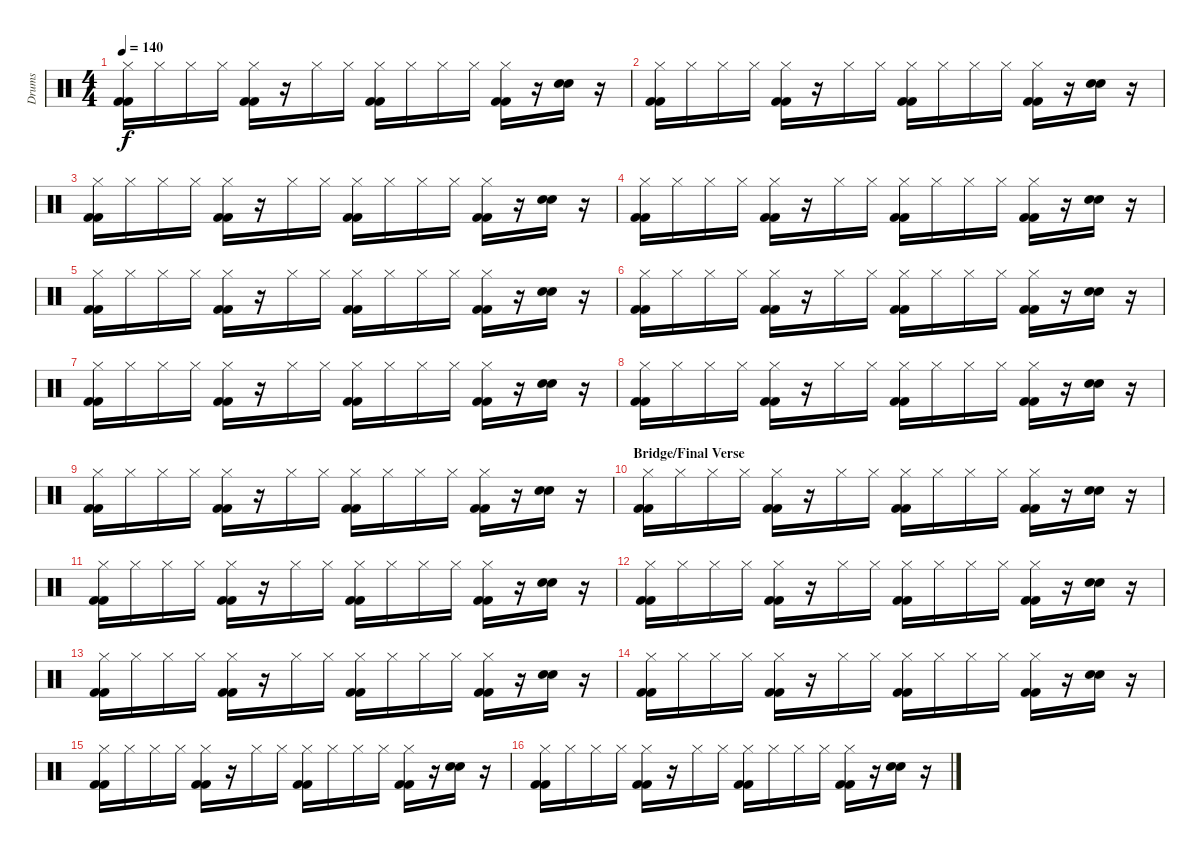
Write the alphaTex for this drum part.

\track ("Drums" "Drums") {instrument percussion}
\staff {score}
\articulation defaults
\ts (4 4)
\tempo 140
\clef neutral
\ks c
("Hi-Hat (closed)" "Kick (hit) 2" "Kick (hit) 2").16{dy f} "Hi-Hat (closed)".16 "Hi-Hat (closed)".16 "Hi-Hat (closed)".16 ("Hi-Hat (closed)" "Kick (hit) 2" "Kick (hit) 2").16 r.16 "Hi-Hat (closed)".16 "Hi-Hat (closed)".16 ("Hi-Hat (closed)" "Kick (hit) 2" "Kick (hit) 2").16 "Hi-Hat (closed)".16 "Hi-Hat (closed)".16 "Hi-Hat (closed)".16 ("Hi-Hat (closed)" "Kick (hit) 2" "Kick (hit) 2").16 r.16 ("Snare (hit) 2" "Snare (hit) 2").16 r.16 |
("Hi-Hat (closed)" "Kick (hit) 2" "Kick (hit) 2").16 "Hi-Hat (closed)".16 "Hi-Hat (closed)".16 "Hi-Hat (closed)".16 ("Hi-Hat (closed)" "Kick (hit) 2" "Kick (hit) 2").16 r.16 "Hi-Hat (closed)".16 "Hi-Hat (closed)".16 ("Hi-Hat (closed)" "Kick (hit) 2" "Kick (hit) 2").16 "Hi-Hat (closed)".16 "Hi-Hat (closed)".16 "Hi-Hat (closed)".16 ("Hi-Hat (closed)" "Kick (hit) 2" "Kick (hit) 2").16 r.16 ("Snare (hit) 2" "Snare (hit) 2").16 r.16 |
("Hi-Hat (closed)" "Kick (hit) 2" "Kick (hit) 2").16 "Hi-Hat (closed)".16 "Hi-Hat (closed)".16 "Hi-Hat (closed)".16 ("Hi-Hat (closed)" "Kick (hit) 2" "Kick (hit) 2").16 r.16 "Hi-Hat (closed)".16 "Hi-Hat (closed)".16 ("Hi-Hat (closed)" "Kick (hit) 2" "Kick (hit) 2").16 "Hi-Hat (closed)".16 "Hi-Hat (closed)".16 "Hi-Hat (closed)".16 ("Hi-Hat (closed)" "Kick (hit) 2" "Kick (hit) 2").16 r.16 ("Snare (hit) 2" "Snare (hit) 2").16 r.16 |
("Hi-Hat (closed)" "Kick (hit) 2" "Kick (hit) 2").16 "Hi-Hat (closed)".16 "Hi-Hat (closed)".16 "Hi-Hat (closed)".16 ("Hi-Hat (closed)" "Kick (hit) 2" "Kick (hit) 2").16 r.16 "Hi-Hat (closed)".16 "Hi-Hat (closed)".16 ("Hi-Hat (closed)" "Kick (hit) 2" "Kick (hit) 2").16 "Hi-Hat (closed)".16 "Hi-Hat (closed)".16 "Hi-Hat (closed)".16 ("Hi-Hat (closed)" "Kick (hit) 2" "Kick (hit) 2").16 r.16 ("Snare (hit) 2" "Snare (hit) 2").16 r.16 |
("Hi-Hat (closed)" "Kick (hit) 2" "Kick (hit) 2").16 "Hi-Hat (closed)".16 "Hi-Hat (closed)".16 "Hi-Hat (closed)".16 ("Hi-Hat (closed)" "Kick (hit) 2" "Kick (hit) 2").16 r.16 "Hi-Hat (closed)".16 "Hi-Hat (closed)".16 ("Hi-Hat (closed)" "Kick (hit) 2" "Kick (hit) 2").16 "Hi-Hat (closed)".16 "Hi-Hat (closed)".16 "Hi-Hat (closed)".16 ("Hi-Hat (closed)" "Kick (hit) 2" "Kick (hit) 2").16 r.16 ("Snare (hit) 2" "Snare (hit) 2").16 r.16 |
("Hi-Hat (closed)" "Kick (hit) 2" "Kick (hit) 2").16 "Hi-Hat (closed)".16 "Hi-Hat (closed)".16 "Hi-Hat (closed)".16 ("Hi-Hat (closed)" "Kick (hit) 2" "Kick (hit) 2").16 r.16 "Hi-Hat (closed)".16 "Hi-Hat (closed)".16 ("Hi-Hat (closed)" "Kick (hit) 2" "Kick (hit) 2").16 "Hi-Hat (closed)".16 "Hi-Hat (closed)".16 "Hi-Hat (closed)".16 ("Hi-Hat (closed)" "Kick (hit) 2" "Kick (hit) 2").16 r.16 ("Snare (hit) 2" "Snare (hit) 2").16 r.16 |
("Hi-Hat (closed)" "Kick (hit) 2" "Kick (hit) 2").16 "Hi-Hat (closed)".16 "Hi-Hat (closed)".16 "Hi-Hat (closed)".16 ("Hi-Hat (closed)" "Kick (hit) 2" "Kick (hit) 2").16 r.16 "Hi-Hat (closed)".16 "Hi-Hat (closed)".16 ("Hi-Hat (closed)" "Kick (hit) 2" "Kick (hit) 2").16 "Hi-Hat (closed)".16 "Hi-Hat (closed)".16 "Hi-Hat (closed)".16 ("Hi-Hat (closed)" "Kick (hit) 2" "Kick (hit) 2").16 r.16 ("Snare (hit) 2" "Snare (hit) 2").16 r.16 |
("Hi-Hat (closed)" "Kick (hit) 2" "Kick (hit) 2").16 "Hi-Hat (closed)".16 "Hi-Hat (closed)".16 "Hi-Hat (closed)".16 ("Hi-Hat (closed)" "Kick (hit) 2" "Kick (hit) 2").16 r.16 "Hi-Hat (closed)".16 "Hi-Hat (closed)".16 ("Hi-Hat (closed)" "Kick (hit) 2" "Kick (hit) 2").16 "Hi-Hat (closed)".16 "Hi-Hat (closed)".16 "Hi-Hat (closed)".16 ("Hi-Hat (closed)" "Kick (hit) 2" "Kick (hit) 2").16 r.16 ("Snare (hit) 2" "Snare (hit) 2").16 r.16 |
("Hi-Hat (closed)" "Kick (hit) 2" "Kick (hit) 2").16 "Hi-Hat (closed)".16 "Hi-Hat (closed)".16 "Hi-Hat (closed)".16 ("Hi-Hat (closed)" "Kick (hit) 2" "Kick (hit) 2").16 r.16 "Hi-Hat (closed)".16 "Hi-Hat (closed)".16 ("Hi-Hat (closed)" "Kick (hit) 2" "Kick (hit) 2").16 "Hi-Hat (closed)".16 "Hi-Hat (closed)".16 "Hi-Hat (closed)".16 ("Hi-Hat (closed)" "Kick (hit) 2" "Kick (hit) 2").16 r.16 ("Snare (hit) 2" "Snare (hit) 2").16 r.16 |
\section ("" "Bridge/Final Verse")
("Hi-Hat (closed)" "Kick (hit) 2" "Kick (hit) 2").16 "Hi-Hat (closed)".16 "Hi-Hat (closed)".16 "Hi-Hat (closed)".16 ("Hi-Hat (closed)" "Kick (hit) 2" "Kick (hit) 2").16 r.16 "Hi-Hat (closed)".16 "Hi-Hat (closed)".16 ("Hi-Hat (closed)" "Kick (hit) 2" "Kick (hit) 2").16 "Hi-Hat (closed)".16 "Hi-Hat (closed)".16 "Hi-Hat (closed)".16 ("Hi-Hat (closed)" "Kick (hit) 2" "Kick (hit) 2").16 r.16 ("Snare (hit) 2" "Snare (hit) 2").16 r.16 |
("Hi-Hat (closed)" "Kick (hit) 2" "Kick (hit) 2").16 "Hi-Hat (closed)".16 "Hi-Hat (closed)".16 "Hi-Hat (closed)".16 ("Hi-Hat (closed)" "Kick (hit) 2" "Kick (hit) 2").16 r.16 "Hi-Hat (closed)".16 "Hi-Hat (closed)".16 ("Hi-Hat (closed)" "Kick (hit) 2" "Kick (hit) 2").16 "Hi-Hat (closed)".16 "Hi-Hat (closed)".16 "Hi-Hat (closed)".16 ("Hi-Hat (closed)" "Kick (hit) 2" "Kick (hit) 2").16 r.16 ("Snare (hit) 2" "Snare (hit) 2").16 r.16 |
("Hi-Hat (closed)" "Kick (hit) 2" "Kick (hit) 2").16 "Hi-Hat (closed)".16 "Hi-Hat (closed)".16 "Hi-Hat (closed)".16 ("Hi-Hat (closed)" "Kick (hit) 2" "Kick (hit) 2").16 r.16 "Hi-Hat (closed)".16 "Hi-Hat (closed)".16 ("Hi-Hat (closed)" "Kick (hit) 2" "Kick (hit) 2").16 "Hi-Hat (closed)".16 "Hi-Hat (closed)".16 "Hi-Hat (closed)".16 ("Hi-Hat (closed)" "Kick (hit) 2" "Kick (hit) 2").16 r.16 ("Snare (hit) 2" "Snare (hit) 2").16 r.16 |
("Hi-Hat (closed)" "Kick (hit) 2" "Kick (hit) 2").16 "Hi-Hat (closed)".16 "Hi-Hat (closed)".16 "Hi-Hat (closed)".16 ("Hi-Hat (closed)" "Kick (hit) 2" "Kick (hit) 2").16 r.16 "Hi-Hat (closed)".16 "Hi-Hat (closed)".16 ("Hi-Hat (closed)" "Kick (hit) 2" "Kick (hit) 2").16 "Hi-Hat (closed)".16 "Hi-Hat (closed)".16 "Hi-Hat (closed)".16 ("Hi-Hat (closed)" "Kick (hit) 2" "Kick (hit) 2").16 r.16 ("Snare (hit) 2" "Snare (hit) 2").16 r.16 |
("Hi-Hat (closed)" "Kick (hit) 2" "Kick (hit) 2").16 "Hi-Hat (closed)".16 "Hi-Hat (closed)".16 "Hi-Hat (closed)".16 ("Hi-Hat (closed)" "Kick (hit) 2" "Kick (hit) 2").16 r.16 "Hi-Hat (closed)".16 "Hi-Hat (closed)".16 ("Hi-Hat (closed)" "Kick (hit) 2" "Kick (hit) 2").16 "Hi-Hat (closed)".16 "Hi-Hat (closed)".16 "Hi-Hat (closed)".16 ("Hi-Hat (closed)" "Kick (hit) 2" "Kick (hit) 2").16 r.16 ("Snare (hit) 2" "Snare (hit) 2").16 r.16 |
("Hi-Hat (closed)" "Kick (hit) 2" "Kick (hit) 2").16 "Hi-Hat (closed)".16 "Hi-Hat (closed)".16 "Hi-Hat (closed)".16 ("Hi-Hat (closed)" "Kick (hit) 2" "Kick (hit) 2").16 r.16 "Hi-Hat (closed)".16 "Hi-Hat (closed)".16 ("Hi-Hat (closed)" "Kick (hit) 2" "Kick (hit) 2").16 "Hi-Hat (closed)".16 "Hi-Hat (closed)".16 "Hi-Hat (closed)".16 ("Hi-Hat (closed)" "Kick (hit) 2" "Kick (hit) 2").16 r.16 ("Snare (hit) 2" "Snare (hit) 2").16 r.16 |
("Hi-Hat (closed)" "Kick (hit) 2" "Kick (hit) 2").16 "Hi-Hat (closed)".16 "Hi-Hat (closed)".16 "Hi-Hat (closed)".16 ("Hi-Hat (closed)" "Kick (hit) 2" "Kick (hit) 2").16 r.16 "Hi-Hat (closed)".16 "Hi-Hat (closed)".16 ("Hi-Hat (closed)" "Kick (hit) 2" "Kick (hit) 2").16 "Hi-Hat (closed)".16 "Hi-Hat (closed)".16 "Hi-Hat (closed)".16 ("Hi-Hat (closed)" "Kick (hit) 2" "Kick (hit) 2").16 r.16 ("Snare (hit) 2" "Snare (hit) 2").16 r.16
